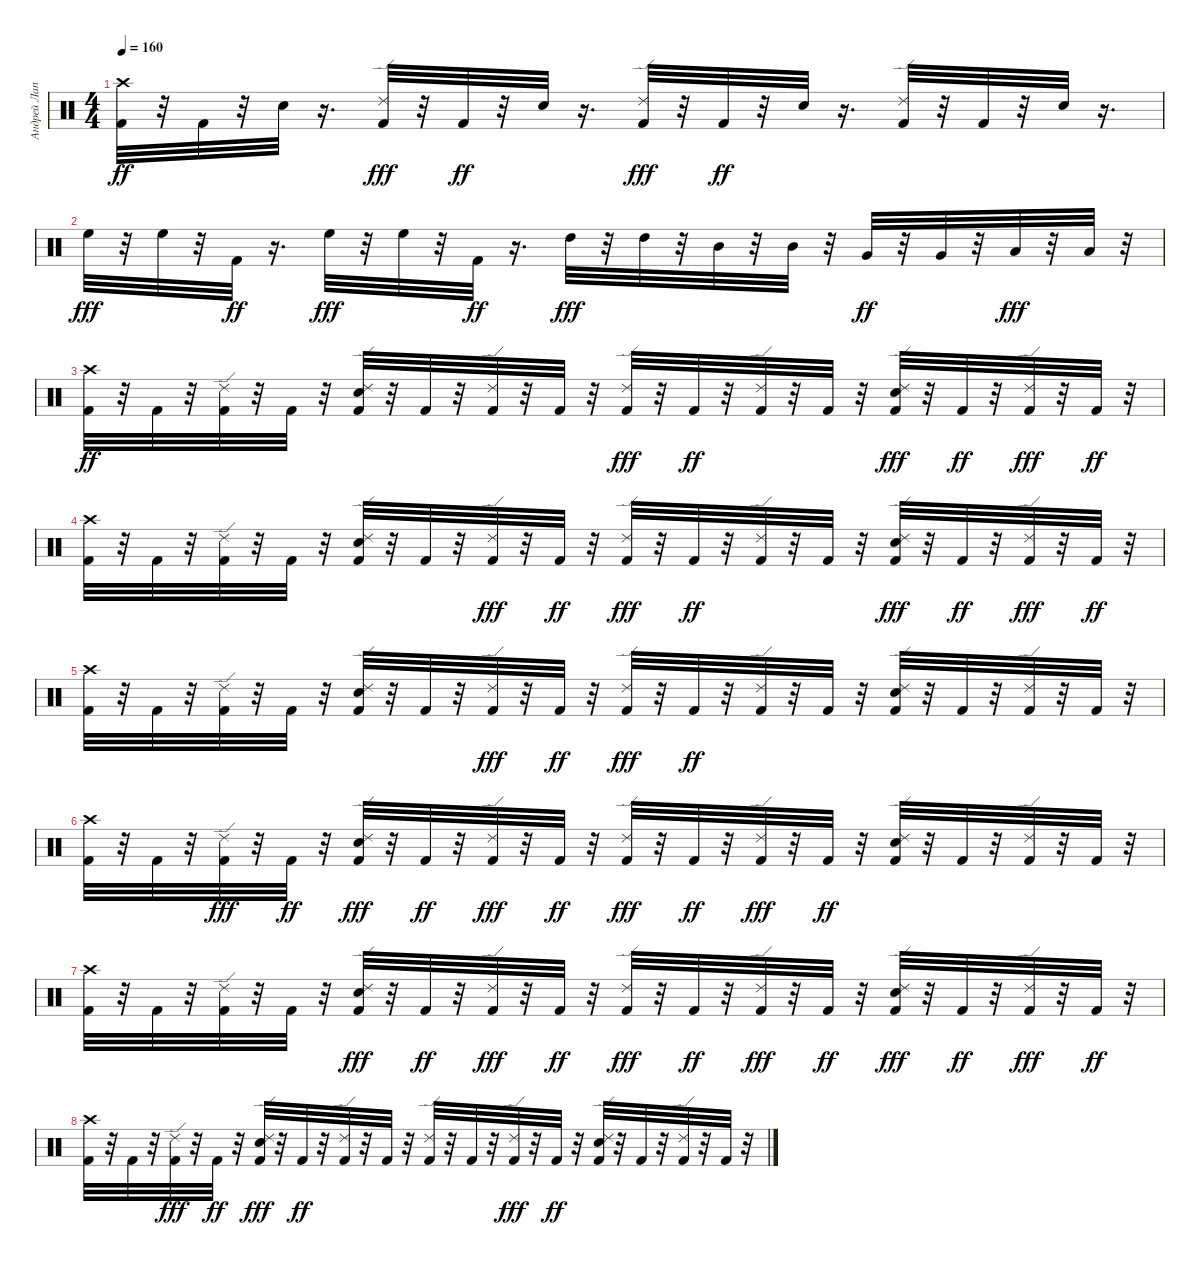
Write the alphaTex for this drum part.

\track ("Андрей Лаптев" "Андрей Лап") {instrument percussion}
\staff {score}
\articulation defaults
\ts (4 4)
\tempo 160
\clef neutral
\ks c
("Kick (hit) 2" "Crash high (hit)").32{dy ff} r.32 "Kick (hit) 2".32 r.32 "Electric Snare (hit)".32 r.16{d} ("Kick (hit) 2" "Ride (edge) 2").32{dy fff} r.32 "Kick (hit) 2".32{dy ff} r.32 "Electric Snare (hit)".32 r.16{d} ("Kick (hit) 2" "Ride (edge) 2").32{dy fff} r.32 "Kick (hit) 2".32{dy ff} r.32 "Electric Snare (hit)".32 r.16{d} ("Ride (edge) 2" "Kick (hit) 2").32 r.32 "Kick (hit) 2".32 r.32 "Electric Snare (hit)".32 r.16{d} |
"High Floor Tom (hit)".32{dy fff} r.32 "High Floor Tom (hit)".32 r.32 "Kick (hit) 2".32{dy ff} r.16{d} "High Floor Tom (hit)".32{dy fff} r.32 "High Floor Tom (hit)".32 r.32 "Kick (hit) 2".32{dy ff} r.16{d} "High Tom (hit)".32{dy fff} r.32 "High Tom (hit)".32 r.32 "Mid Tom (hit)".32 r.32 "Mid Tom (hit)".32 r.32 "Very Low Tom (hit)".32{dy ff} r.32 "Very Low Tom (hit)".32 r.32 "Low Tom (hit)".32{dy fff} r.32 "Low Tom (hit)".32 r.32 |
("Kick (hit) 2" "Crash high (hit)").32{dy ff} r.32 "Kick (hit) 2".32 r.32 ("Ride (edge) 2" "Kick (hit) 2").32 r.32 "Kick (hit) 2".32 r.32 ("Electric Snare (hit)" "Ride (edge) 2" "Kick (hit) 2").32 r.32 "Kick (hit) 2".32 r.32 ("Ride (edge) 2" "Kick (hit) 2").32 r.32 "Kick (hit) 2".32 r.32 ("Kick (hit) 2" "Ride (edge) 2").32{dy fff} r.32 "Kick (hit) 2".32{dy ff} r.32 ("Ride (edge) 2" "Kick (hit) 2").32 r.32 "Kick (hit) 2".32 r.32 ("Electric Snare (hit)" "Kick (hit) 2" "Ride (edge) 2").32{dy fff} r.32 "Kick (hit) 2".32{dy ff} r.32 ("Kick (hit) 2" "Ride (edge) 2").32{dy fff} r.32 "Kick (hit) 2".32{dy ff} r.32 |
("Crash high (hit)" "Kick (hit) 2").32 r.32 "Kick (hit) 2".32 r.32 ("Ride (edge) 2" "Kick (hit) 2").32 r.32 "Kick (hit) 2".32 r.32 ("Electric Snare (hit)" "Ride (edge) 2" "Kick (hit) 2").32 r.32 "Kick (hit) 2".32 r.32 ("Kick (hit) 2" "Ride (edge) 2").32{dy fff} r.32 "Kick (hit) 2".32{dy ff} r.32 ("Kick (hit) 2" "Ride (edge) 2").32{dy fff} r.32 "Kick (hit) 2".32{dy ff} r.32 ("Ride (edge) 2" "Kick (hit) 2").32 r.32 "Kick (hit) 2".32 r.32 ("Kick (hit) 2" "Electric Snare (hit)" "Ride (edge) 2").32{dy fff} r.32 "Kick (hit) 2".32{dy ff} r.32 ("Kick (hit) 2" "Ride (edge) 2").32{dy fff} r.32 "Kick (hit) 2".32{dy ff} r.32 |
("Crash high (hit)" "Kick (hit) 2").32 r.32 "Kick (hit) 2".32 r.32 ("Ride (edge) 2" "Kick (hit) 2").32 r.32 "Kick (hit) 2".32 r.32 ("Kick (hit) 2" "Ride (edge) 2" "Electric Snare (hit)").32 r.32 "Kick (hit) 2".32 r.32 ("Kick (hit) 2" "Ride (edge) 2").32{dy fff} r.32 "Kick (hit) 2".32{dy ff} r.32 ("Kick (hit) 2" "Ride (edge) 2").32{dy fff} r.32 "Kick (hit) 2".32{dy ff} r.32 ("Ride (edge) 2" "Kick (hit) 2").32 r.32 "Kick (hit) 2".32 r.32 ("Electric Snare (hit)" "Ride (edge) 2" "Kick (hit) 2").32 r.32 "Kick (hit) 2".32 r.32 ("Ride (edge) 2" "Kick (hit) 2").32 r.32 "Kick (hit) 2".32 r.32 |
("Crash high (hit)" "Kick (hit) 2").32 r.32 "Kick (hit) 2".32 r.32 ("Kick (hit) 2" "Ride (edge) 2").32{dy fff} r.32 "Kick (hit) 2".32{dy ff} r.32 ("Kick (hit) 2" "Electric Snare (hit)" "Ride (edge) 2").32{dy fff} r.32 "Kick (hit) 2".32{dy ff} r.32 ("Kick (hit) 2" "Ride (edge) 2").32{dy fff} r.32 "Kick (hit) 2".32{dy ff} r.32 ("Kick (hit) 2" "Ride (edge) 2").32{dy fff} r.32 "Kick (hit) 2".32{dy ff} r.32 ("Kick (hit) 2" "Ride (edge) 2").32{dy fff} r.32 "Kick (hit) 2".32{dy ff} r.32 ("Ride (edge) 2" "Electric Snare (hit)" "Kick (hit) 2").32 r.32 "Kick (hit) 2".32 r.32 ("Ride (edge) 2" "Kick (hit) 2").32 r.32 "Kick (hit) 2".32 r.32 |
("Crash high (hit)" "Kick (hit) 2").32 r.32 "Kick (hit) 2".32 r.32 ("Ride (edge) 2" "Kick (hit) 2").32 r.32 "Kick (hit) 2".32 r.32 ("Electric Snare (hit)" "Kick (hit) 2" "Ride (edge) 2").32{dy fff} r.32 "Kick (hit) 2".32{dy ff} r.32 ("Kick (hit) 2" "Ride (edge) 2").32{dy fff} r.32 "Kick (hit) 2".32{dy ff} r.32 ("Kick (hit) 2" "Ride (edge) 2").32{dy fff} r.32 "Kick (hit) 2".32{dy ff} r.32 ("Kick (hit) 2" "Ride (edge) 2").32{dy fff} r.32 "Kick (hit) 2".32{dy ff} r.32 ("Electric Snare (hit)" "Kick (hit) 2" "Ride (edge) 2").32{dy fff} r.32 "Kick (hit) 2".32{dy ff} r.32 ("Kick (hit) 2" "Ride (edge) 2").32{dy fff} r.32 "Kick (hit) 2".32{dy ff} r.32 |
("Crash high (hit)" "Kick (hit) 2").32 r.32 "Kick (hit) 2".32 r.32 ("Kick (hit) 2" "Ride (edge) 2").32{dy fff} r.32 "Kick (hit) 2".32{dy ff} r.32 ("Kick (hit) 2" "Electric Snare (hit)" "Ride (edge) 2").32{dy fff} r.32 "Kick (hit) 2".32{dy ff} r.32 ("Ride (edge) 2" "Kick (hit) 2").32 r.32 "Kick (hit) 2".32 r.32 ("Ride (edge) 2" "Kick (hit) 2").32 r.32 "Kick (hit) 2".32 r.32 ("Kick (hit) 2" "Ride (edge) 2").32{dy fff} r.32 "Kick (hit) 2".32{dy ff} r.32 ("Kick (hit) 2" "Ride (edge) 2" "Electric Snare (hit)").32 r.32 "Kick (hit) 2".32 r.32 ("Ride (edge) 2" "Kick (hit) 2").32 r.32 "Kick (hit) 2".32 r.32
